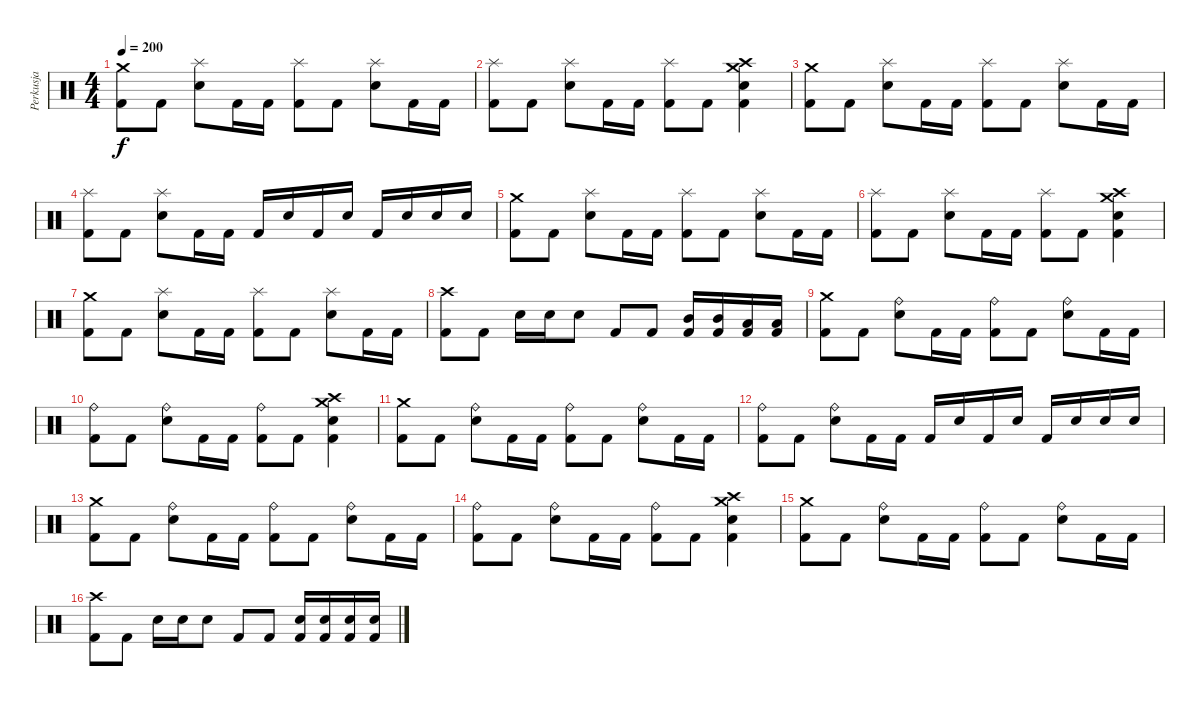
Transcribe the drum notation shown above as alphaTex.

\track ("Perkusja" "Perkusja") {instrument percussion}
\staff {score}
\articulation defaults
\ts (4 4)
\tempo 200
\clef neutral
\ks c
("Crash medium (hit)" "Kick (hit) 2").8{dy f} "Kick (hit) 2".8 ("Splash (hit)" "Electric Snare (hit)").8 "Kick (hit) 2".16 "Kick (hit) 2".16 ("Splash (hit)" "Kick (hit) 2").8 "Kick (hit) 2".8 ("Splash (hit)" "Electric Snare (hit)").8 "Kick (hit) 2".16 "Kick (hit) 2".16 |
("Splash (hit)" "Kick (hit) 2").8 "Kick (hit) 2".8 ("Splash (hit)" "Electric Snare (hit)").8 "Kick (hit) 2".16 "Kick (hit) 2".16 ("Splash (hit)" "Kick (hit) 2").8 "Kick (hit) 2".8 ("Crash medium (hit)" "Crash high (hit)" "Electric Snare (hit)" "Kick (hit) 2").4 |
("Crash medium (hit)" "Kick (hit) 2").8 "Kick (hit) 2".8 ("Splash (hit)" "Electric Snare (hit)").8 "Kick (hit) 2".16 "Kick (hit) 2".16 ("Splash (hit)" "Kick (hit) 2").8 "Kick (hit) 2".8 ("Splash (hit)" "Electric Snare (hit)").8 "Kick (hit) 2".16 "Kick (hit) 2".16 |
("Splash (hit)" "Kick (hit) 2").8 "Kick (hit) 2".8 ("Splash (hit)" "Electric Snare (hit)").8 "Kick (hit) 2".16 "Kick (hit) 2".16 "Kick (hit) 2".16 "Electric Snare (hit)".16 "Kick (hit) 2".16 "Electric Snare (hit)".16 "Kick (hit) 2".16 "Electric Snare (hit)".16 "Electric Snare (hit)".16 "Electric Snare (hit)".16 |
("Crash medium (hit)" "Kick (hit) 2").8 "Kick (hit) 2".8 ("Splash (hit)" "Electric Snare (hit)").8 "Kick (hit) 2".16 "Kick (hit) 2".16 ("Splash (hit)" "Kick (hit) 2").8 "Kick (hit) 2".8 ("Splash (hit)" "Electric Snare (hit)").8 "Kick (hit) 2".16 "Kick (hit) 2".16 |
("Splash (hit)" "Kick (hit) 2").8 "Kick (hit) 2".8 ("Splash (hit)" "Electric Snare (hit)").8 "Kick (hit) 2".16 "Kick (hit) 2".16 ("Splash (hit)" "Kick (hit) 2").8 "Kick (hit) 2".8 ("Crash medium (hit)" "Crash high (hit)" "Electric Snare (hit)" "Kick (hit) 2").4 |
("Crash medium (hit)" "Kick (hit) 2").8 "Kick (hit) 2".8 ("Splash (hit)" "Electric Snare (hit)").8 "Kick (hit) 2".16 "Kick (hit) 2".16 ("Splash (hit)" "Kick (hit) 2").8 "Kick (hit) 2".8 ("Splash (hit)" "Electric Snare (hit)").8 "Kick (hit) 2".16 "Kick (hit) 2".16 |
("Crash high (hit)" "Kick (hit) 2").8 "Kick (hit) 2".8 "Electric Snare (hit)".16 "Electric Snare (hit)".16 "Electric Snare (hit)".8 "Kick (hit) 2".8 "Kick (hit) 2".8 ("Kick (hit) 2" "Mid Tom (hit)").16 ("Kick (hit) 2" "Mid Tom (hit)").16 ("Kick (hit) 2" "Low Tom (hit)").16 ("Kick (hit) 2" "Low Tom (hit)").16 |
("Crash medium (hit)" "Kick (hit) 2").8 "Kick (hit) 2".8 ("Ride (bell)" "Electric Snare (hit)").8 "Kick (hit) 2".16 "Kick (hit) 2".16 ("Ride (bell)" "Kick (hit) 2").8 "Kick (hit) 2".8 ("Ride (bell)" "Electric Snare (hit)").8 "Kick (hit) 2".16 "Kick (hit) 2".16 |
("Ride (bell)" "Kick (hit) 2").8 "Kick (hit) 2".8 ("Ride (bell)" "Electric Snare (hit)").8 "Kick (hit) 2".16 "Kick (hit) 2".16 ("Ride (bell)" "Kick (hit) 2").8 "Kick (hit) 2".8 ("Crash medium (hit)" "Crash high (hit)" "Electric Snare (hit)" "Kick (hit) 2").4 |
("Crash medium (hit)" "Kick (hit) 2").8 "Kick (hit) 2".8 ("Ride (bell)" "Electric Snare (hit)").8 "Kick (hit) 2".16 "Kick (hit) 2".16 ("Ride (bell)" "Kick (hit) 2").8 "Kick (hit) 2".8 ("Ride (bell)" "Electric Snare (hit)").8 "Kick (hit) 2".16 "Kick (hit) 2".16 |
("Ride (bell)" "Kick (hit) 2").8 "Kick (hit) 2".8 ("Ride (bell)" "Electric Snare (hit)").8 "Kick (hit) 2".16 "Kick (hit) 2".16 "Kick (hit) 2".16 "Electric Snare (hit)".16 "Kick (hit) 2".16 "Electric Snare (hit)".16 "Kick (hit) 2".16 "Electric Snare (hit)".16 "Electric Snare (hit)".16 "Electric Snare (hit)".16 |
("Crash medium (hit)" "Kick (hit) 2").8 "Kick (hit) 2".8 ("Ride (bell)" "Electric Snare (hit)").8 "Kick (hit) 2".16 "Kick (hit) 2".16 ("Ride (bell)" "Kick (hit) 2").8 "Kick (hit) 2".8 ("Ride (bell)" "Electric Snare (hit)").8 "Kick (hit) 2".16 "Kick (hit) 2".16 |
("Ride (bell)" "Kick (hit) 2").8 "Kick (hit) 2".8 ("Ride (bell)" "Electric Snare (hit)").8 "Kick (hit) 2".16 "Kick (hit) 2".16 ("Ride (bell)" "Kick (hit) 2").8 "Kick (hit) 2".8 ("Crash medium (hit)" "Crash high (hit)" "Electric Snare (hit)" "Kick (hit) 2").4 |
("Crash medium (hit)" "Kick (hit) 2").8 "Kick (hit) 2".8 ("Ride (bell)" "Electric Snare (hit)").8 "Kick (hit) 2".16 "Kick (hit) 2".16 ("Ride (bell)" "Kick (hit) 2").8 "Kick (hit) 2".8 ("Ride (bell)" "Electric Snare (hit)").8 "Kick (hit) 2".16 "Kick (hit) 2".16 |
("Crash high (hit)" "Kick (hit) 2").8 "Kick (hit) 2".8 "Electric Snare (hit)".16 "Electric Snare (hit)".16 "Electric Snare (hit)".8 "Kick (hit) 2".8 "Kick (hit) 2".8 ("Kick (hit) 2" "Electric Snare (hit)").16 ("Kick (hit) 2" "Electric Snare (hit)").16 ("Kick (hit) 2" "Electric Snare (hit)").16 ("Kick (hit) 2" "Electric Snare (hit)").16
